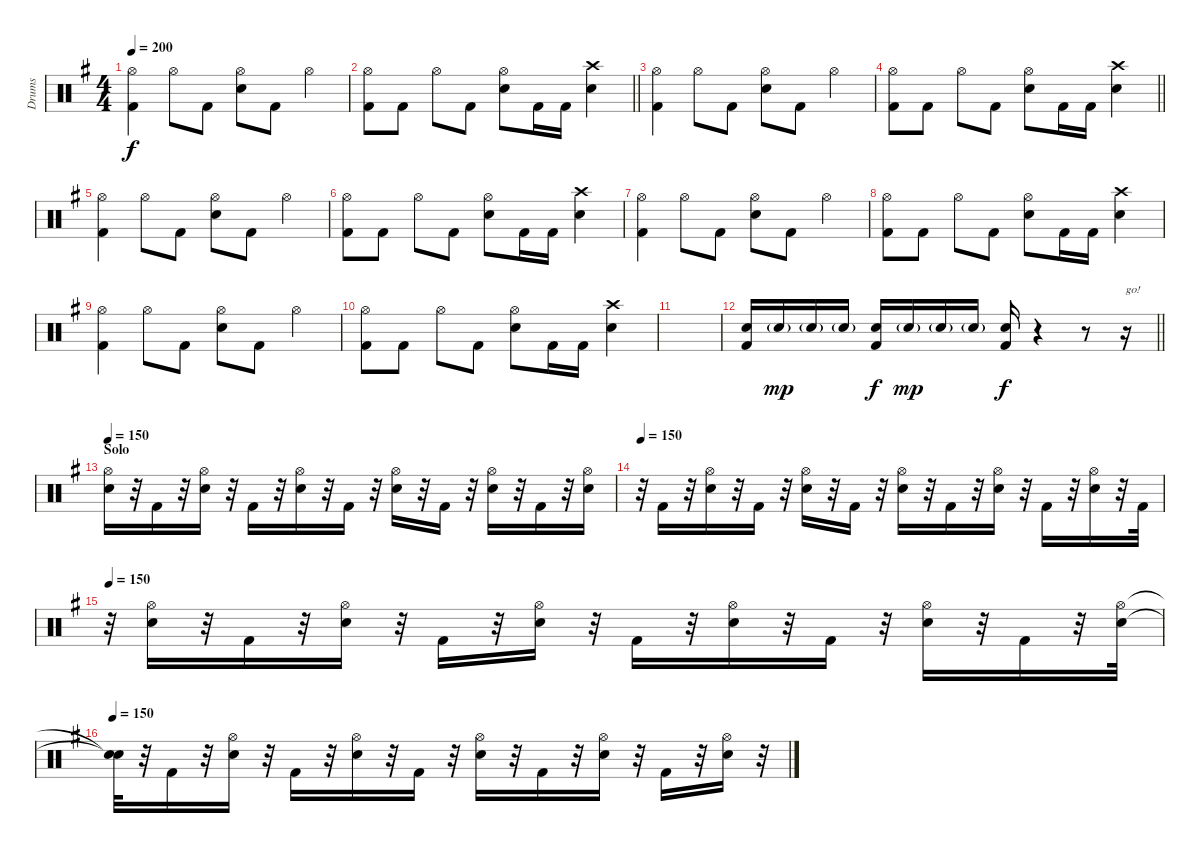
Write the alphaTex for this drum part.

\track ("Drums" "Drums") {instrument percussion}
\staff {score}
\articulation defaults
\ts (4 4)
\tempo 200
\clef neutral
\ks eminor
("Hi-Hat (open)" "Kick (hit) 2").4{dy f} "Hi-Hat (open)".8 "Kick (hit) 2".8 ("Hi-Hat (open)" "Snare (hit) 2").8 "Kick (hit) 2".8 "Hi-Hat (open)".4 |
\barLineRight lightlight
("Hi-Hat (open)" "Kick (hit) 2").8 "Kick (hit) 2".8 "Hi-Hat (open)".8 "Kick (hit) 2".8 ("Hi-Hat (open)" "Snare (hit) 2").8 "Kick (hit) 2".16 "Kick (hit) 2".16 ("Crash high (hit)" "Snare (hit) 2").4 |
("Hi-Hat (open)" "Kick (hit) 2").4 "Hi-Hat (open)".8 "Kick (hit) 2".8 ("Hi-Hat (open)" "Snare (hit) 2").8 "Kick (hit) 2".8 "Hi-Hat (open)".4 |
\barLineRight lightlight
("Hi-Hat (open)" "Kick (hit) 2").8 "Kick (hit) 2".8 "Hi-Hat (open)".8 "Kick (hit) 2".8 ("Hi-Hat (open)" "Snare (hit) 2").8 "Kick (hit) 2".16 "Kick (hit) 2".16 ("Crash high (hit)" "Snare (hit) 2").4 |
("Hi-Hat (open)" "Kick (hit) 2").4 "Hi-Hat (open)".8 "Kick (hit) 2".8 ("Hi-Hat (open)" "Snare (hit) 2").8 "Kick (hit) 2".8 "Hi-Hat (open)".4 |
("Hi-Hat (open)" "Kick (hit) 2").8 "Kick (hit) 2".8 "Hi-Hat (open)".8 "Kick (hit) 2".8 ("Hi-Hat (open)" "Snare (hit) 2").8 "Kick (hit) 2".16 "Kick (hit) 2".16 ("Crash high (hit)" "Snare (hit) 2").4 |
("Hi-Hat (open)" "Kick (hit) 2").4 "Hi-Hat (open)".8 "Kick (hit) 2".8 ("Hi-Hat (open)" "Snare (hit) 2").8 "Kick (hit) 2".8 "Hi-Hat (open)".4 |
("Hi-Hat (open)" "Kick (hit) 2").8 "Kick (hit) 2".8 "Hi-Hat (open)".8 "Kick (hit) 2".8 ("Hi-Hat (open)" "Snare (hit) 2").8 "Kick (hit) 2".16 "Kick (hit) 2".16 ("Crash high (hit)" "Snare (hit) 2").4 |
("Hi-Hat (open)" "Kick (hit) 2").4 "Hi-Hat (open)".8 "Kick (hit) 2".8 ("Hi-Hat (open)" "Snare (hit) 2").8 "Kick (hit) 2".8 "Hi-Hat (open)".4 |
("Hi-Hat (open)" "Kick (hit) 2").8 "Kick (hit) 2".8 "Hi-Hat (open)".8 "Kick (hit) 2".8 ("Hi-Hat (open)" "Snare (hit) 2").8 "Kick (hit) 2".16 "Kick (hit) 2".16 ("Crash high (hit)" "Snare (hit) 2").4 |
|
\barLineRight lightlight
("Snare (hit) 2" "Kick (hit) 2").16 "Snare (hit) 2"{g}.16{dy mp} "Snare (hit) 2"{g}.16 "Snare (hit) 2"{g}.16 ("Snare (hit) 2" "Kick (hit) 2").16{dy f} "Snare (hit) 2"{g}.16{dy mp} "Snare (hit) 2"{g}.16 "Snare (hit) 2"{g}.16 ("Snare (hit) 2" "Kick (hit) 2").16{dy f} r.4 r.8 r.16{txt "go!"} |
\section ("" "Solo")
\tempo 150
("Hi-Hat (open)" "Snare (hit) 2").16 r.32 "Kick (hit) 2".16 r.32 ("Hi-Hat (open)" "Snare (hit) 2").16 r.32 "Kick (hit) 2".16 r.32 ("Hi-Hat (open)" "Snare (hit) 2").16 r.32 "Kick (hit) 2".16 r.32 ("Hi-Hat (open)" "Snare (hit) 2").16 r.32 "Kick (hit) 2".16 r.32 ("Hi-Hat (open)" "Snare (hit) 2").16 r.32 "Kick (hit) 2".16 r.32 ("Hi-Hat (open)" "Snare (hit) 2").16 |
\tempo 150
r.32 "Kick (hit) 2".16 r.32 ("Hi-Hat (open)" "Snare (hit) 2").16 r.32 "Kick (hit) 2".16 r.32 ("Hi-Hat (open)" "Snare (hit) 2").16 r.32 "Kick (hit) 2".16 r.32 ("Hi-Hat (open)" "Snare (hit) 2").16 r.32 "Kick (hit) 2".16 r.32 ("Hi-Hat (open)" "Snare (hit) 2").16 r.32 "Kick (hit) 2".16 r.32 ("Hi-Hat (open)" "Snare (hit) 2").16 r.32 "Kick (hit) 2".32 |
\tempo 150
r.32 ("Hi-Hat (open)" "Snare (hit) 2").16 r.32 "Kick (hit) 2".16 r.32 ("Hi-Hat (open)" "Snare (hit) 2").16 r.32 "Kick (hit) 2".16 r.32 ("Hi-Hat (open)" "Snare (hit) 2").16 r.32 "Kick (hit) 2".16 r.32 ("Hi-Hat (open)" "Snare (hit) 2").16 r.32 "Kick (hit) 2".16 r.32 ("Hi-Hat (open)" "Snare (hit) 2").16 r.32 "Kick (hit) 2".16 r.32 ("Hi-Hat (open)" "Snare (hit) 2").32 |
\tempo 150
("Snare (hit)"{t} "Snare (hit)"{t}).32 r.32 "Kick (hit) 2".16 r.32 ("Hi-Hat (open)" "Snare (hit) 2").16 r.32 "Kick (hit) 2".16 r.32 ("Hi-Hat (open)" "Snare (hit) 2").16 r.32 "Kick (hit) 2".16 r.32 ("Hi-Hat (open)" "Snare (hit) 2").16 r.32 "Kick (hit) 2".16 r.32 ("Hi-Hat (open)" "Snare (hit) 2").16 r.32 "Kick (hit) 2".16 r.32 ("Hi-Hat (open)" "Snare (hit) 2").16 r.32
